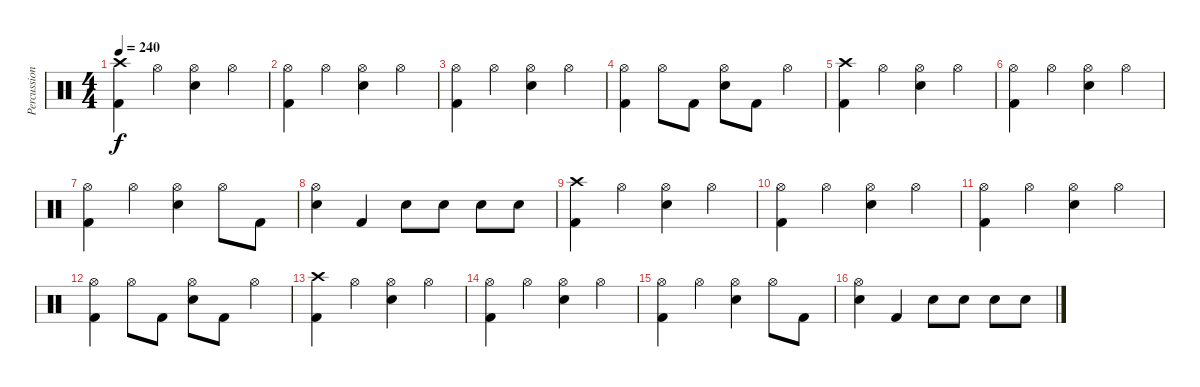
\track ("Percussion" "Percussion") {instrument percussion}
\staff {score}
\articulation defaults
\ts (4 4)
\tempo 240
\clef neutral
\ks c
("Crash high (hit)" "Kick (hit) 2").4{dy f} "Hi-Hat (open)".4 ("Hi-Hat (open)" "Snare (hit) 2").4 "Hi-Hat (open)".4 |
("Hi-Hat (open)" "Kick (hit) 2").4 "Hi-Hat (open)".4 ("Hi-Hat (open)" "Snare (hit) 2").4 "Hi-Hat (open)".4 |
("Hi-Hat (open)" "Kick (hit) 2").4 "Hi-Hat (open)".4 ("Hi-Hat (open)" "Snare (hit) 2").4 "Hi-Hat (open)".4 |
("Hi-Hat (open)" "Kick (hit) 2").4 "Hi-Hat (open)".8 "Kick (hit) 2".8 ("Hi-Hat (open)" "Snare (hit) 2").8 "Kick (hit) 2".8 "Hi-Hat (open)".4 |
("Crash high (hit)" "Kick (hit) 2").4 "Hi-Hat (open)".4 ("Hi-Hat (open)" "Snare (hit) 2").4 "Hi-Hat (open)".4 |
("Hi-Hat (open)" "Kick (hit) 2").4 "Hi-Hat (open)".4 ("Hi-Hat (open)" "Snare (hit) 2").4 "Hi-Hat (open)".4 |
("Hi-Hat (open)" "Kick (hit) 2").4 "Hi-Hat (open)".4 ("Hi-Hat (open)" "Snare (hit) 2").4 "Hi-Hat (open)".8 "Kick (hit) 2".8 |
("Hi-Hat (open)" "Snare (hit) 2").4 "Kick (hit) 2".4 "Snare (hit) 2".8 "Snare (hit) 2".8 "Snare (hit) 2".8 "Snare (hit) 2".8 |
("Crash high (hit)" "Kick (hit) 2").4 "Hi-Hat (open)".4 ("Hi-Hat (open)" "Snare (hit) 2").4 "Hi-Hat (open)".4 |
("Hi-Hat (open)" "Kick (hit) 2").4 "Hi-Hat (open)".4 ("Hi-Hat (open)" "Snare (hit) 2").4 "Hi-Hat (open)".4 |
("Hi-Hat (open)" "Kick (hit) 2").4 "Hi-Hat (open)".4 ("Hi-Hat (open)" "Snare (hit) 2").4 "Hi-Hat (open)".4 |
("Hi-Hat (open)" "Kick (hit) 2").4 "Hi-Hat (open)".8 "Kick (hit) 2".8 ("Hi-Hat (open)" "Snare (hit) 2").8 "Kick (hit) 2".8 "Hi-Hat (open)".4 |
("Crash high (hit)" "Kick (hit) 2").4 "Hi-Hat (open)".4 ("Hi-Hat (open)" "Snare (hit) 2").4 "Hi-Hat (open)".4 |
("Hi-Hat (open)" "Kick (hit) 2").4 "Hi-Hat (open)".4 ("Hi-Hat (open)" "Snare (hit) 2").4 "Hi-Hat (open)".4 |
("Hi-Hat (open)" "Kick (hit) 2").4 "Hi-Hat (open)".4 ("Hi-Hat (open)" "Snare (hit) 2").4 "Hi-Hat (open)".8 "Kick (hit) 2".8 |
("Hi-Hat (open)" "Snare (hit) 2").4 "Kick (hit) 2".4 "Snare (hit) 2".8 "Snare (hit) 2".8 "Snare (hit) 2".8 "Snare (hit) 2".8
